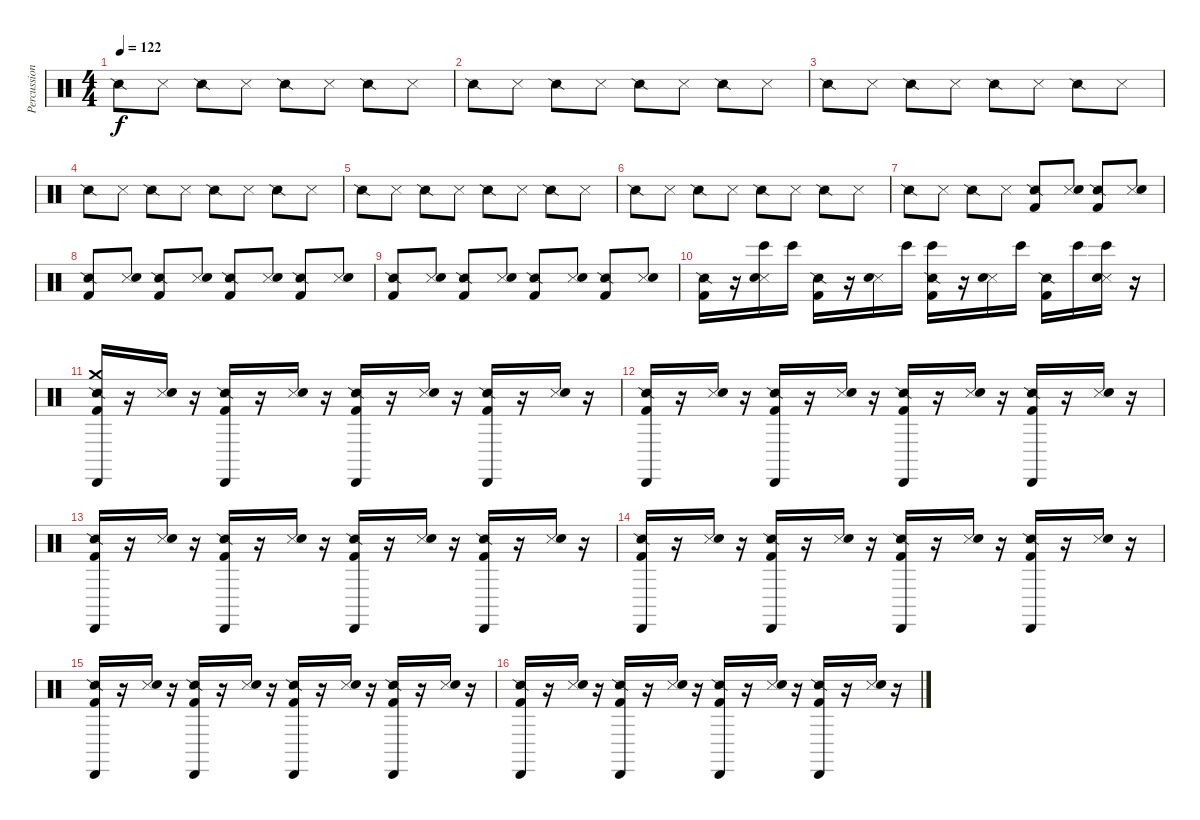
\track ("Percussion" "Percussion") {instrument percussion}
\staff {score}
\articulation defaults
\ts (4 4)
\tempo 122
\clef neutral
\ks c "Snare (side stick) 2".8{dy f} "Snare (side stick) 3".8 "Snare (side stick) 2".8 "Snare (side stick) 3".8 "Snare (side stick) 2".8 "Snare (side stick) 3".8 "Snare (side stick) 2".8 "Snare (side stick) 3".8
|
"Snare (side stick) 2".8 "Snare (side stick) 3".8 "Snare (side stick) 2".8 "Snare (side stick) 3".8 "Snare (side stick) 2".8 "Snare (side stick) 3".8 "Snare (side stick) 2".8 "Snare (side stick) 3".8 |
"Snare (side stick) 2".8 "Snare (side stick) 3".8 "Snare (side stick) 2".8 "Snare (side stick) 3".8 "Snare (side stick) 2".8 "Snare (side stick) 3".8 "Snare (side stick) 2".8 "Snare (side stick) 3".8 |
"Snare (side stick) 2".8 "Snare (side stick) 3".8 "Snare (side stick) 2".8 "Snare (side stick) 3".8 "Snare (side stick) 2".8 "Snare (side stick) 3".8 "Snare (side stick) 2".8 "Snare (side stick) 3".8 |
"Snare (side stick) 2".8 "Snare (side stick) 3".8 "Snare (side stick) 2".8 "Snare (side stick) 3".8 "Snare (side stick) 2".8 "Snare (side stick) 3".8 "Snare (side stick) 2".8 "Snare (side stick) 3".8 |
"Snare (side stick) 2".8 "Snare (side stick) 3".8 "Snare (side stick) 2".8 "Snare (side stick) 3".8 "Snare (side stick) 2".8 "Snare (side stick) 3".8 "Snare (side stick) 2".8 "Snare (side stick) 3".8 |
"Snare (side stick) 2".8 "Snare (side stick) 3".8 "Snare (side stick) 2".8 "Snare (side stick) 3".8 ("Snare (side stick) 2" "Kick (hit) 2").8 ("Snare (side stick) 3" "Snare (hit) 2").8 ("Snare (side stick) 2" "Kick (hit) 2").8 ("Snare (side stick) 3" "Snare (hit) 2").8 |
("Snare (side stick) 2" "Kick (hit) 2").8 ("Snare (side stick) 3" "Snare (hit) 2").8 ("Snare (side stick) 2" "Kick (hit) 2").8 ("Snare (side stick) 3" "Snare (hit) 2").8 ("Snare (side stick) 2" "Kick (hit) 2").8 ("Snare (side stick) 3" "Snare (hit) 2").8 ("Snare (side stick) 2" "Kick (hit) 2").8 ("Snare (side stick) 3" "Snare (hit) 2").8 |
("Snare (side stick) 2" "Kick (hit) 2").8 ("Snare (side stick) 3" "Snare (hit) 2").8 ("Snare (side stick) 2" "Kick (hit) 2").8 ("Snare (side stick) 3" "Snare (hit) 2").8 ("Snare (side stick) 2" "Kick (hit) 2").8 ("Snare (side stick) 3" "Snare (hit) 2").8 ("Snare (side stick) 2" "Kick (hit) 2").8 ("Snare (side stick) 3" "Snare (hit) 2").8 |
("Snare (side stick) 2" "Kick (hit) 2").16 r.16 ("Snare (side stick) 3" "Bongo High (hit)" "Snare (hit) 2").16 "Bongo High (hit)".16 ("Snare (side stick) 2" "Kick (hit) 2").16 r.16 ("Snare (side stick) 3" "Snare (hit) 2").16 "Bongo High (hit)".16 ("Snare (side stick) 2" "Bongo High (hit)" "Kick (hit) 2").16 r.16 ("Snare (side stick) 3" "Snare (hit) 2").16 "Bongo High (hit)".16 ("Snare (side stick) 2" "Kick (hit) 2").16 "Bongo High (hit)".16 ("Snare (side stick) 3" "Bongo High (hit)" "Snare (hit) 2").16 r.16 |
("Snare (side stick) 2" "Crash medium (hit)" "Kick (hit) 2" "Cabasa (hit)").16 r.16 ("Snare (side stick) 3" "Snare (hit) 2").16 r.16 ("Snare (side stick) 2" "Kick (hit) 2" "Cabasa (hit)").16 r.16 ("Snare (side stick) 3" "Snare (hit) 2").16 r.16 ("Snare (side stick) 2" "Kick (hit) 2" "Cabasa (hit)").16 r.16 ("Snare (side stick) 3" "Snare (hit) 2").16 r.16 ("Snare (side stick) 2" "Kick (hit) 2" "Cabasa (hit)").16 r.16 ("Snare (side stick) 3" "Snare (hit) 2").16 r.16 |
("Snare (side stick) 2" "Kick (hit) 2" "Cabasa (hit)").16 r.16 ("Snare (side stick) 3" "Snare (hit) 2").16 r.16 ("Snare (side stick) 2" "Kick (hit) 2" "Cabasa (hit)").16 r.16 ("Snare (side stick) 3" "Snare (hit) 2").16 r.16 ("Snare (side stick) 2" "Kick (hit) 2" "Cabasa (hit)").16 r.16 ("Snare (side stick) 3" "Snare (hit) 2").16 r.16 ("Snare (side stick) 2" "Kick (hit) 2" "Cabasa (hit)").16 r.16 ("Snare (side stick) 3" "Snare (hit) 2").16 r.16 |
("Snare (side stick) 2" "Kick (hit) 2" "Cabasa (hit)").16 r.16 ("Snare (side stick) 3" "Snare (hit) 2").16 r.16 ("Snare (side stick) 2" "Kick (hit) 2" "Cabasa (hit)").16 r.16 ("Snare (side stick) 3" "Snare (hit) 2").16 r.16 ("Snare (side stick) 2" "Kick (hit) 2" "Cabasa (hit)").16 r.16 ("Snare (side stick) 3" "Snare (hit) 2").16 r.16 ("Snare (side stick) 2" "Kick (hit) 2" "Cabasa (hit)").16 r.16 ("Snare (side stick) 3" "Snare (hit) 2").16 r.16 |
("Snare (side stick) 2" "Kick (hit) 2" "Cabasa (hit)").16 r.16 ("Snare (side stick) 3" "Snare (hit) 2").16 r.16 ("Snare (side stick) 2" "Kick (hit) 2" "Cabasa (hit)").16 r.16 ("Snare (side stick) 3" "Snare (hit) 2").16 r.16 ("Snare (side stick) 2" "Kick (hit) 2" "Cabasa (hit)").16 r.16 ("Snare (side stick) 3" "Snare (hit) 2").16 r.16 ("Snare (side stick) 2" "Kick (hit) 2" "Cabasa (hit)").16 r.16 ("Snare (side stick) 3" "Snare (hit) 2").16 r.16 |
("Snare (side stick) 2" "Kick (hit) 2" "Cabasa (hit)").16 r.16 ("Snare (side stick) 3" "Snare (hit) 2").16 r.16 ("Snare (side stick) 2" "Kick (hit) 2" "Cabasa (hit)").16 r.16 ("Snare (side stick) 3" "Snare (hit) 2").16 r.16 ("Snare (side stick) 2" "Kick (hit) 2" "Cabasa (hit)").16 r.16 ("Snare (side stick) 3" "Snare (hit) 2").16 r.16 ("Snare (side stick) 2" "Kick (hit) 2" "Cabasa (hit)").16 r.16 ("Snare (side stick) 3" "Snare (hit) 2").16 r.16 |
("Snare (side stick) 2" "Kick (hit) 2" "Cabasa (hit)").16 r.16 ("Snare (side stick) 3" "Snare (hit) 2").16 r.16 ("Snare (side stick) 2" "Kick (hit) 2" "Cabasa (hit)").16 r.16 ("Snare (side stick) 3" "Snare (hit) 2").16 r.16 ("Snare (side stick) 2" "Kick (hit) 2" "Cabasa (hit)").16 r.16 ("Snare (side stick) 3" "Snare (hit) 2").16 r.16 ("Snare (side stick) 2" "Kick (hit) 2" "Cabasa (hit)").16 r.16 ("Snare (side stick) 3" "Snare (hit) 2").16 r.16
